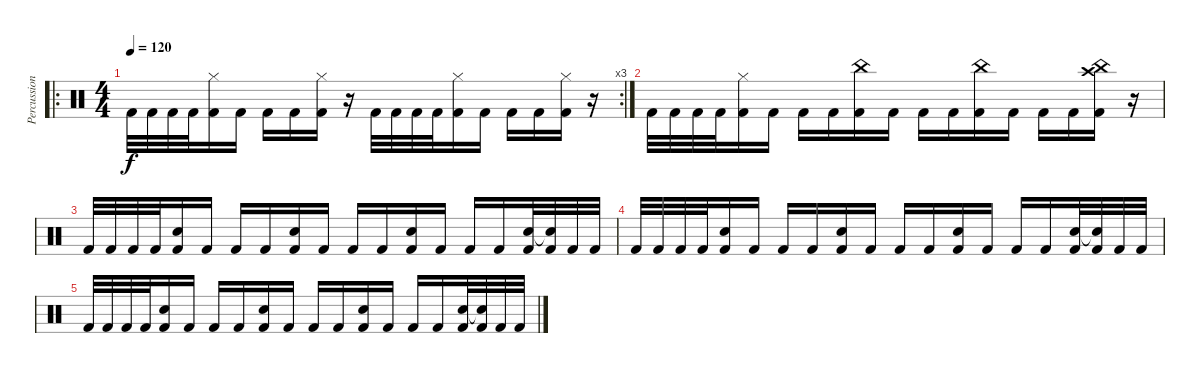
\track ("Percussion" "Percussion") {instrument percussion}
\staff {score}
\articulation defaults
\ro
\rc 3
\ts (4 4)
\tempo 120
\clef neutral
\ks c "Kick (hit) 2".32{dy f} "Kick (hit) 2".32 "Kick (hit) 2".32 "Kick (hit) 2".32
("Kick (hit) 2" "Hi-Hat (closed)").16 "Kick (hit) 2".16 "Kick (hit) 2".16 "Kick (hit) 2".16 ("Kick (hit) 2" "Hi-Hat (closed)").16 r.16 "Kick (hit) 2".32 "Kick (hit) 2".32 "Kick (hit) 2".32 "Kick (hit) 2".32 ("Kick (hit) 2" "Hi-Hat (closed)").16 "Kick (hit) 2".16 "Kick (hit) 2".16 "Kick (hit) 2".16 ("Kick (hit) 2" "Hi-Hat (closed)").16 r.16 |
"Kick (hit) 2".32 "Kick (hit) 2".32 "Kick (hit) 2".32 "Kick (hit) 2".32 ("Kick (hit) 2" "Hi-Hat (closed)").16 "Kick (hit) 2".16 "Kick (hit) 2".16 "Kick (hit) 2".16 ("Kick (hit) 2" "China (hit)").16 "Kick (hit) 2".16 "Kick (hit) 2".16 "Kick (hit) 2".16 ("Kick (hit) 2" "China (hit)").16 "Kick (hit) 2".16 "Kick (hit) 2".16 "Kick (hit) 2".16 ("Kick (hit) 2" "China (hit)" "Crash high (hit)").16 r.16 |
"Kick (hit) 2".32 "Kick (hit) 2".32 "Kick (hit) 2".32 "Kick (hit) 2".32 ("Kick (hit) 2" "Snare (hit) 2").16 "Kick (hit) 2".16 "Kick (hit) 2".16 "Kick (hit) 2".16 ("Kick (hit) 2" "Snare (hit) 2").16 "Kick (hit) 2".16 "Kick (hit) 2".16 "Kick (hit) 2".16 ("Kick (hit) 2" "Snare (hit) 2").16 "Kick (hit) 2".16 "Kick (hit) 2".16 "Kick (hit) 2".16 ("Kick (hit) 2" "Snare (hit) 2").32 ("Kick (hit) 2" "Snare (hit) 2"{t}).32 "Kick (hit) 2".32 "Kick (hit) 2".32 |
"Kick (hit) 2".32 "Kick (hit) 2".32 "Kick (hit) 2".32 "Kick (hit) 2".32 ("Kick (hit) 2" "Snare (hit) 2").16 "Kick (hit) 2".16 "Kick (hit) 2".16 "Kick (hit) 2".16 ("Kick (hit) 2" "Snare (hit) 2").16 "Kick (hit) 2".16 "Kick (hit) 2".16 "Kick (hit) 2".16 ("Kick (hit) 2" "Snare (hit) 2").16 "Kick (hit) 2".16 "Kick (hit) 2".16 "Kick (hit) 2".16 ("Kick (hit) 2" "Snare (hit) 2").32 ("Kick (hit) 2" "Snare (hit) 2"{t}).32 "Kick (hit) 2".32 "Kick (hit) 2".32 |
"Kick (hit) 2".32 "Kick (hit) 2".32 "Kick (hit) 2".32 "Kick (hit) 2".32 ("Kick (hit) 2" "Snare (hit) 2").16 "Kick (hit) 2".16 "Kick (hit) 2".16 "Kick (hit) 2".16 ("Kick (hit) 2" "Snare (hit) 2").16 "Kick (hit) 2".16 "Kick (hit) 2".16 "Kick (hit) 2".16 ("Kick (hit) 2" "Snare (hit) 2").16 "Kick (hit) 2".16 "Kick (hit) 2".16 "Kick (hit) 2".16 ("Kick (hit) 2" "Snare (hit) 2").32 ("Kick (hit) 2" "Snare (hit) 2"{t}).32 "Kick (hit) 2".32 "Kick (hit) 2".32
